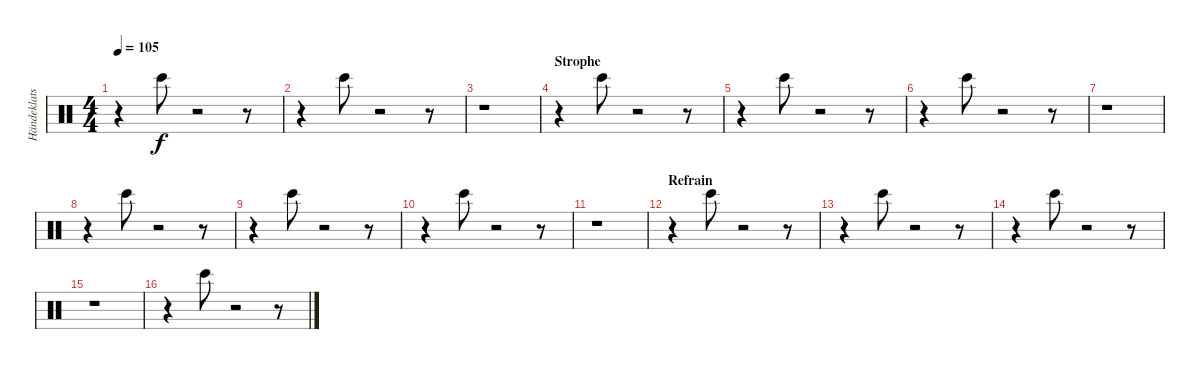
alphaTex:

\track ("Händeklatschen" "Händeklats") {instrument percussion}
\staff {score}
\articulation defaults
\ts (4 4)
\tempo 105
\clef neutral
\ks c
r.4{dy f} "Bongo High (hit)".8 r.2 r.8 |
r.4 "Bongo High (hit)".8 r.2 r.8 |
r.1 |
\section ("" "Strophe")
r.4 "Bongo High (hit)".8 r.2 r.8 |
r.4 "Bongo High (hit)".8 r.2 r.8 |
r.4 "Bongo High (hit)".8 r.2 r.8 |
r.1 |
r.4 "Bongo High (hit)".8 r.2 r.8 |
r.4 "Bongo High (hit)".8 r.2 r.8 |
r.4 "Bongo High (hit)".8 r.2 r.8 |
r.1 |
\section ("" "Refrain")
r.4 "Bongo High (hit)".8 r.2 r.8 |
r.4 "Bongo High (hit)".8 r.2 r.8 |
r.4 "Bongo High (hit)".8 r.2 r.8 |
r.1 |
r.4 "Bongo High (hit)".8 r.2 r.8
